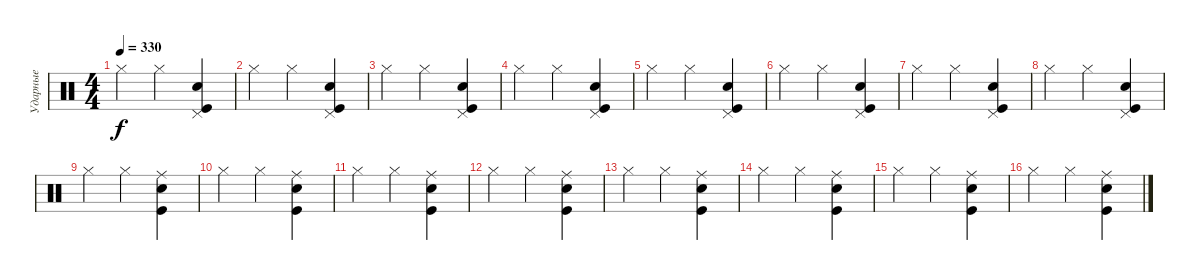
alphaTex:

\track ("Ударные" "Ударные") {instrument percussion}
\staff {score}
\articulation defaults
\ts (4 4)
\tempo 330
\clef neutral
\ks c "Hi-Hat (closed)".4{dy f} "Hi-Hat (closed)".4
("Kick (hit)" "Snare (hit) 2" "Pedal Hi-Hat (hit)").4 |
"Hi-Hat (closed)".4 "Hi-Hat (closed)".4 ("Kick (hit)" "Snare (hit) 2" "Pedal Hi-Hat (hit)").4 |
"Hi-Hat (closed)".4 "Hi-Hat (closed)".4 ("Kick (hit)" "Snare (hit) 2" "Pedal Hi-Hat (hit)").4 |
"Hi-Hat (closed)".4 "Hi-Hat (closed)".4 ("Kick (hit)" "Snare (hit) 2" "Pedal Hi-Hat (hit)").4 |
"Hi-Hat (closed)".4 "Hi-Hat (closed)".4 ("Kick (hit)" "Snare (hit) 2" "Pedal Hi-Hat (hit)").4 |
"Hi-Hat (closed)".4 "Hi-Hat (closed)".4 ("Kick (hit)" "Snare (hit) 2" "Pedal Hi-Hat (hit)").4 |
"Hi-Hat (closed)".4 "Hi-Hat (closed)".4 ("Kick (hit)" "Snare (hit) 2" "Pedal Hi-Hat (hit)").4 |
"Hi-Hat (closed)".4 "Hi-Hat (closed)".4 ("Kick (hit)" "Snare (hit) 2" "Pedal Hi-Hat (hit)").4 |
"Hi-Hat (closed)".4 "Hi-Hat (closed)".4 ("Kick (hit)" "Snare (hit) 2" "Ride (middle)").4 |
"Hi-Hat (closed)".4 "Hi-Hat (closed)".4 ("Kick (hit)" "Snare (hit) 2" "Ride (middle)").4 |
"Hi-Hat (closed)".4 "Hi-Hat (closed)".4 ("Kick (hit)" "Snare (hit) 2" "Ride (middle)").4 |
"Hi-Hat (closed)".4 "Hi-Hat (closed)".4 ("Kick (hit)" "Snare (hit) 2" "Ride (middle)").4 |
"Hi-Hat (closed)".4 "Hi-Hat (closed)".4 ("Kick (hit)" "Snare (hit) 2" "Ride (middle)").4 |
"Hi-Hat (closed)".4 "Hi-Hat (closed)".4 ("Kick (hit)" "Snare (hit) 2" "Ride (middle)").4 |
"Hi-Hat (closed)".4 "Hi-Hat (closed)".4 ("Kick (hit)" "Snare (hit) 2" "Ride (middle)").4 |
"Hi-Hat (closed)".4 "Hi-Hat (closed)".4 ("Kick (hit)" "Snare (hit) 2" "Ride (middle)").4
